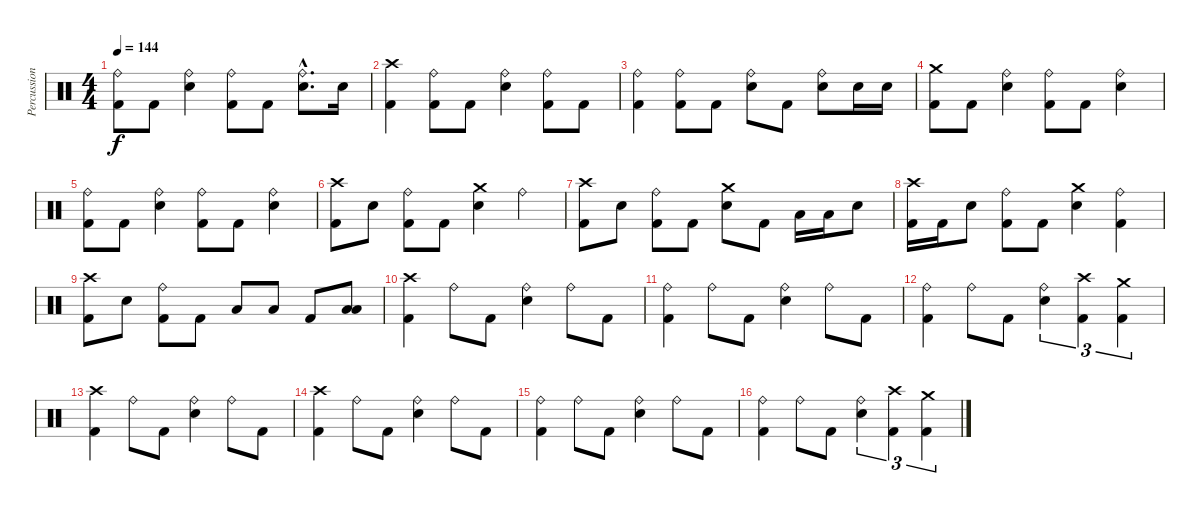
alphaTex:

\track ("Percussions" "Percussion") {instrument percussion}
\staff {score}
\articulation defaults
\ts (4 4)
\tempo 144
\clef neutral
\ks c
("Ride (bell)" "Kick (hit) 2").8{dy f} "Kick (hit) 2".8 ("Ride (bell)" "Electric Snare (hit)").4 ("Ride (bell)" "Kick (hit) 2").8 "Kick (hit) 2".8 ("Ride (bell)"{hac} "Electric Snare (hit)"{hac}).8{d} "Electric Snare (hit)".16 |
("Crash high (hit)" "Kick (hit) 2").4 ("Ride (bell)" "Kick (hit) 2").8 "Kick (hit) 2".8 ("Ride (bell)" "Electric Snare (hit)").4 ("Ride (bell)" "Kick (hit) 2").8 "Kick (hit) 2".8 |
("Ride (bell)" "Kick (hit) 2").4 ("Ride (bell)" "Kick (hit) 2").8 "Kick (hit) 2".8 ("Ride (bell)" "Electric Snare (hit)").8 "Kick (hit) 2".8 ("Ride (bell)" "Electric Snare (hit)").8 "Electric Snare (hit)".16 "Electric Snare (hit)".16 |
("Crash medium (hit)" "Kick (hit) 2").8 "Kick (hit) 2".8 ("Ride (bell)" "Electric Snare (hit)").4 ("Ride (bell)" "Kick (hit) 2").8 "Kick (hit) 2".8 ("Ride (bell)" "Electric Snare (hit)").4 |
("Ride (bell)" "Kick (hit) 2").8 "Kick (hit) 2".8 ("Ride (bell)" "Electric Snare (hit)").4 ("Ride (bell)" "Kick (hit) 2").8 "Kick (hit) 2".8 ("Ride (bell)" "Electric Snare (hit)").4 |
("Crash high (hit)" "Kick (hit) 2").8 "Electric Snare (hit)".8 ("Ride (bell)" "Kick (hit) 2").8 "Kick (hit) 2".8 ("Crash medium (hit)" "Electric Snare (hit)").4 "Ride (bell)".4 |
("Crash high (hit)" "Kick (hit) 2").8 "Electric Snare (hit)".8 ("Ride (bell)" "Kick (hit) 2").8 "Kick (hit) 2".8 ("Crash medium (hit)" "Electric Snare (hit)").8 "Kick (hit) 2".8 "Low Tom (hit)".16 "Low Floor Tom (hit)".16 "Electric Snare (hit)".8 |
("Crash high (hit)" "Kick (hit) 2").16 "Kick (hit) 2".16 "Electric Snare (hit)".8 ("Ride (bell)" "Kick (hit) 2").8 "Kick (hit) 2".8 ("Crash medium (hit)" "Electric Snare (hit)").4 ("Ride (bell)" "Kick (hit) 2").4 |
("Crash high (hit)" "Kick (hit) 2").8 "Electric Snare (hit)".8 ("Ride (bell)" "Kick (hit) 2").8 "Kick (hit) 2".8 "Low Tom (hit)".8 "Low Tom (hit)".8 "Kick (hit) 2".8 ("Low Floor Tom (hit)" "Low Tom (hit)").8 |
("Crash high (hit)" "Kick (hit) 2").4 "Ride (bell)".8 "Kick (hit) 2".8 ("Ride (bell)" "Electric Snare (hit)").4 "Ride (bell)".8 "Kick (hit) 2".8 |
("Ride (bell)" "Kick (hit) 2").4 "Ride (bell)".8 "Kick (hit) 2".8 ("Ride (bell)" "Electric Snare (hit)").4 "Ride (bell)".8 "Kick (hit) 2".8 |
("Ride (bell)" "Kick (hit) 2").4 "Ride (bell)".8 "Kick (hit) 2".8 ("Ride (bell)" "Electric Snare (hit)").4{tu (3 2)} ("Crash high (hit)" "Kick (hit) 2").4{tu (3 2)} ("Crash medium (hit)" "Kick (hit) 2").4{tu (3 2)} |
("Crash high (hit)" "Kick (hit) 2").4 "Ride (bell)".8 "Kick (hit) 2".8 ("Ride (bell)" "Electric Snare (hit)").4 "Ride (bell)".8 "Kick (hit) 2".8 |
("Crash high (hit)" "Kick (hit) 2").4 "Ride (bell)".8 "Kick (hit) 2".8 ("Ride (bell)" "Electric Snare (hit)").4 "Ride (bell)".8 "Kick (hit) 2".8 |
("Ride (bell)" "Kick (hit) 2").4 "Ride (bell)".8 "Kick (hit) 2".8 ("Ride (bell)" "Electric Snare (hit)").4 "Ride (bell)".8 "Kick (hit) 2".8 |
("Ride (bell)" "Kick (hit) 2").4 "Ride (bell)".8 "Kick (hit) 2".8 ("Ride (bell)" "Electric Snare (hit)").4{tu (3 2)} ("Crash high (hit)" "Kick (hit) 2").4{tu (3 2)} ("Crash medium (hit)" "Kick (hit) 2").4{tu (3 2)}
